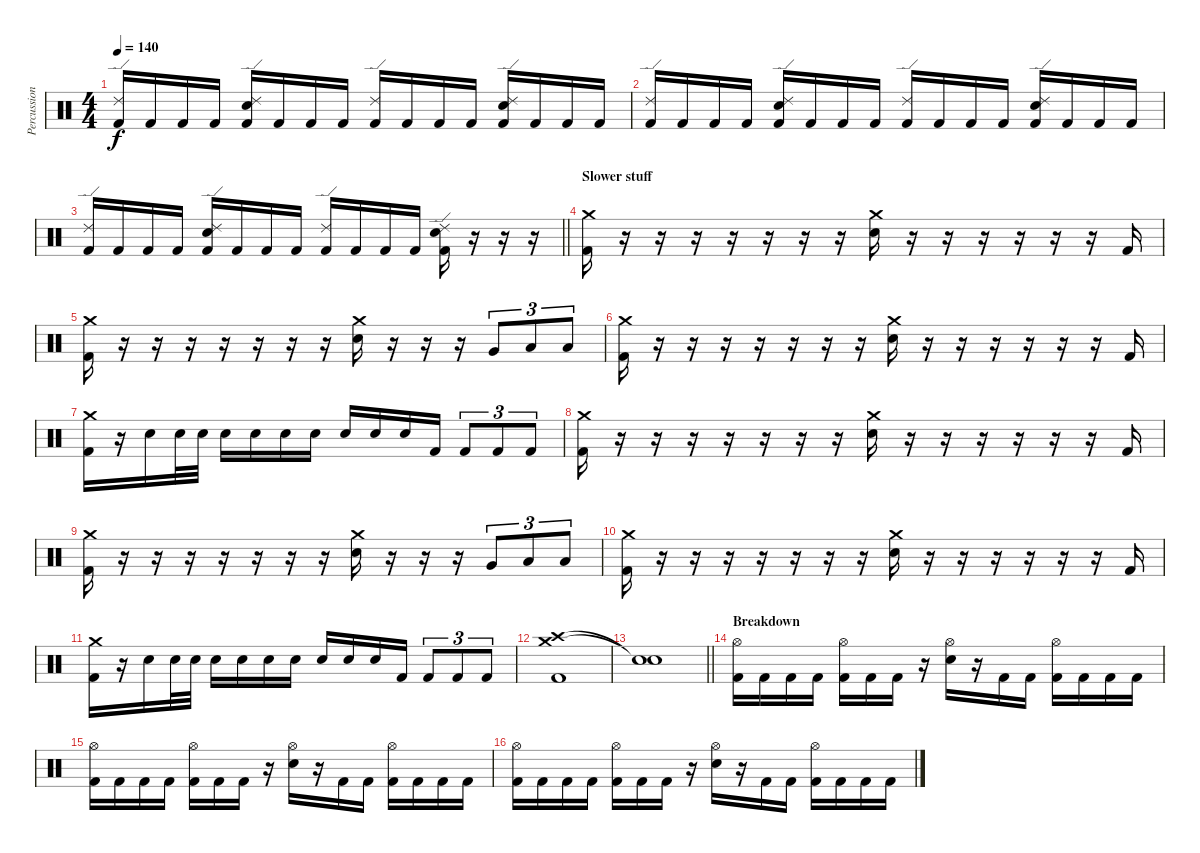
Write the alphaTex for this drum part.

\track ("Percussion" "Percussion") {instrument percussion}
\staff {score}
\articulation defaults
\ts (4 4)
\tempo 140
\clef neutral
\ks c
("Ride (edge) 2" "Kick (hit) 2").16{dy f} "Kick (hit) 2".16 "Kick (hit) 2".16 "Kick (hit) 2".16 ("Ride (edge) 2" "Electric Snare (hit)" "Kick (hit) 2").16 "Kick (hit) 2".16 "Kick (hit) 2".16 "Kick (hit) 2".16 ("Ride (edge) 2" "Kick (hit) 2").16 "Kick (hit) 2".16 "Kick (hit) 2".16 "Kick (hit) 2".16 ("Ride (edge) 2" "Electric Snare (hit)" "Kick (hit) 2").16 "Kick (hit) 2".16 "Kick (hit) 2".16 "Kick (hit) 2".16 |
("Ride (edge) 2" "Kick (hit) 2").16 "Kick (hit) 2".16 "Kick (hit) 2".16 "Kick (hit) 2".16 ("Ride (edge) 2" "Electric Snare (hit)" "Kick (hit) 2").16 "Kick (hit) 2".16 "Kick (hit) 2".16 "Kick (hit) 2".16 ("Ride (edge) 2" "Kick (hit) 2").16 "Kick (hit) 2".16 "Kick (hit) 2".16 "Kick (hit) 2".16 ("Ride (edge) 2" "Electric Snare (hit)" "Kick (hit) 2").16 "Kick (hit) 2".16 "Kick (hit) 2".16 "Kick (hit) 2".16 |
\barLineRight lightlight
("Ride (edge) 2" "Kick (hit) 2").16 "Kick (hit) 2".16 "Kick (hit) 2".16 "Kick (hit) 2".16 ("Ride (edge) 2" "Electric Snare (hit)" "Kick (hit) 2").16 "Kick (hit) 2".16 "Kick (hit) 2".16 "Kick (hit) 2".16 ("Ride (edge) 2" "Kick (hit) 2").16 "Kick (hit) 2".16 "Kick (hit) 2".16 "Kick (hit) 2".16 ("Ride (edge) 2" "Electric Snare (hit)" "Kick (hit) 2").16 r.16 r.16 r.16 |
\section ("" "Slower stuff")
("Crash medium (hit)" "Kick (hit) 2").16 r.16 r.16 r.16 r.16 r.16 r.16 r.16 ("Crash medium (hit)" "Electric Snare (hit)").16 r.16 r.16 r.16 r.16 r.16 r.16 "Kick (hit) 2".16 |
("Crash medium (hit)" "Kick (hit) 2").16 r.16 r.16 r.16 r.16 r.16 r.16 r.16 ("Crash medium (hit)" "Electric Snare (hit)").16 r.16 r.16 r.16 "Very Low Tom (hit)".8{tu (3 2)} "Low Floor Tom (hit)".8{tu (3 2)} "Low Floor Tom (hit)".8{tu (3 2)} |
("Crash medium (hit)" "Kick (hit) 2").16 r.16 r.16 r.16 r.16 r.16 r.16 r.16 ("Crash medium (hit)" "Electric Snare (hit)").16 r.16 r.16 r.16 r.16 r.16 r.16 "Kick (hit) 2".16 |
("Crash medium (hit)" "Kick (hit) 2").16 r.16 "Electric Snare (hit)".16 "Electric Snare (hit)".32 "Electric Snare (hit)".32 "Electric Snare (hit)".16 "Electric Snare (hit)".16 "Electric Snare (hit)".16 "Electric Snare (hit)".16 "Electric Snare (hit)".16 "Electric Snare (hit)".16 "Electric Snare (hit)".16 "Kick (hit) 2".16 "Kick (hit) 2".8{tu (3 2)} "Kick (hit) 2".8{tu (3 2)} "Kick (hit) 2".8{tu (3 2)} |
("Crash medium (hit)" "Kick (hit) 2").16 r.16 r.16 r.16 r.16 r.16 r.16 r.16 ("Crash medium (hit)" "Electric Snare (hit)").16 r.16 r.16 r.16 r.16 r.16 r.16 "Kick (hit) 2".16 |
("Crash medium (hit)" "Kick (hit) 2").16 r.16 r.16 r.16 r.16 r.16 r.16 r.16 ("Crash medium (hit)" "Electric Snare (hit)").16 r.16 r.16 r.16 "Very Low Tom (hit)".8{tu (3 2)} "Low Floor Tom (hit)".8{tu (3 2)} "Low Floor Tom (hit)".8{tu (3 2)} |
("Crash medium (hit)" "Kick (hit) 2").16 r.16 r.16 r.16 r.16 r.16 r.16 r.16 ("Crash medium (hit)" "Electric Snare (hit)").16 r.16 r.16 r.16 r.16 r.16 r.16 "Kick (hit) 2".16 |
("Crash medium (hit)" "Kick (hit) 2").16 r.16 "Electric Snare (hit)".16 "Electric Snare (hit)".32 "Electric Snare (hit)".32 "Electric Snare (hit)".16 "Electric Snare (hit)".16 "Electric Snare (hit)".16 "Electric Snare (hit)".16 "Electric Snare (hit)".16 "Electric Snare (hit)".16 "Electric Snare (hit)".16 "Kick (hit) 2".16 "Kick (hit) 2".8{tu (3 2)} "Kick (hit) 2".8{tu (3 2)} "Kick (hit) 2".8{tu (3 2)} |
("Crash medium (hit)" "Crash high (hit)" "Kick (hit) 2").1 |
\barLineRight lightlight
("Snare (hit)"{t} "Snare (hit)"{t}).1 |
\section ("" "Breakdown")
("Hi-Hat (open)" "Kick (hit) 2").16 "Kick (hit) 2".16 "Kick (hit) 2".16 "Kick (hit) 2".16 ("Hi-Hat (open)" "Kick (hit) 2").16 "Kick (hit) 2".16 "Kick (hit) 2".16 r.16 ("Hi-Hat (open)" "Electric Snare (hit)").16 r.16 "Kick (hit) 2".16 "Kick (hit) 2".16 ("Hi-Hat (open)" "Kick (hit) 2").16 "Kick (hit) 2".16 "Kick (hit) 2".16 "Kick (hit) 2".16 |
("Hi-Hat (open)" "Kick (hit) 2").16 "Kick (hit) 2".16 "Kick (hit) 2".16 "Kick (hit) 2".16 ("Hi-Hat (open)" "Kick (hit) 2").16 "Kick (hit) 2".16 "Kick (hit) 2".16 r.16 ("Hi-Hat (open)" "Electric Snare (hit)").16 r.16 "Kick (hit) 2".16 "Kick (hit) 2".16 ("Hi-Hat (open)" "Kick (hit) 2").16 "Kick (hit) 2".16 "Kick (hit) 2".16 "Kick (hit) 2".16 |
("Hi-Hat (open)" "Kick (hit) 2").16 "Kick (hit) 2".16 "Kick (hit) 2".16 "Kick (hit) 2".16 ("Hi-Hat (open)" "Kick (hit) 2").16 "Kick (hit) 2".16 "Kick (hit) 2".16 r.16 ("Hi-Hat (open)" "Electric Snare (hit)").16 r.16 "Kick (hit) 2".16 "Kick (hit) 2".16 ("Hi-Hat (open)" "Kick (hit) 2").16 "Kick (hit) 2".16 "Kick (hit) 2".16 "Kick (hit) 2".16
